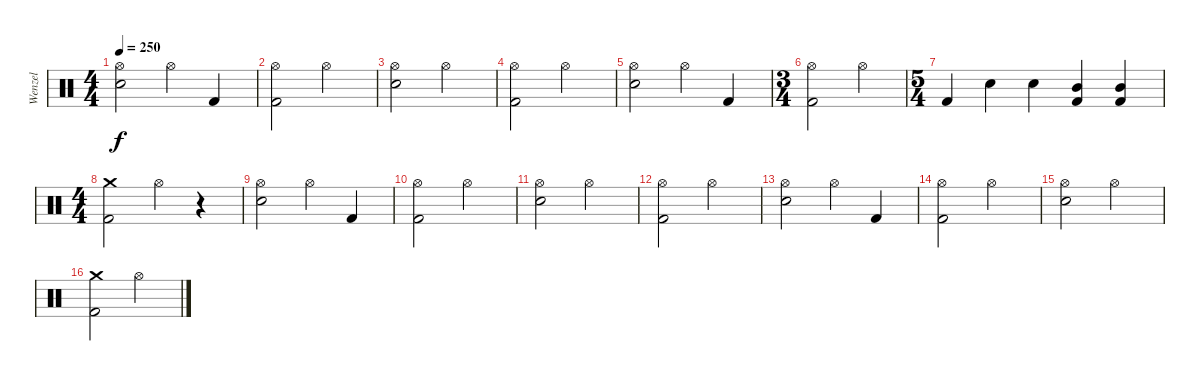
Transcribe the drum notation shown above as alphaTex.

\track ("Wenzel" "Wenzel") {instrument percussion}
\staff {score}
\articulation defaults
\ts (4 4)
\tempo 250
\clef neutral
\ks c
("Hi-Hat (open)" "Snare (hit) 2").2{dy f} "Hi-Hat (open)".4 "Kick (hit) 2".4 |
("Hi-Hat (open)" "Kick (hit) 2").2 "Hi-Hat (open)".2 |
("Hi-Hat (open)" "Snare (hit) 2").2 "Hi-Hat (open)".2 |
("Hi-Hat (open)" "Kick (hit) 2").2 "Hi-Hat (open)".2 |
("Hi-Hat (open)" "Snare (hit) 2").2 "Hi-Hat (open)".4 "Kick (hit) 2".4 |
\ts (3 4)
("Hi-Hat (open)" "Kick (hit) 2").2 "Hi-Hat (open)".4 |
\ts (5 4)
"Kick (hit) 2".4 "Snare (hit) 2".4 "Snare (hit) 2".4 ("Mid Tom (hit)" "Kick (hit) 2").4 ("Mid Tom (hit)" "Kick (hit) 2").4 |
\ts (4 4)
("Crash medium (hit)" "Kick (hit) 2").2 "Hi-Hat (open)".4 r.4 |
("Hi-Hat (open)" "Snare (hit) 2").2 "Hi-Hat (open)".4 "Kick (hit) 2".4 |
("Hi-Hat (open)" "Kick (hit) 2").2 "Hi-Hat (open)".2 |
("Hi-Hat (open)" "Snare (hit) 2").2 "Hi-Hat (open)".2 |
("Hi-Hat (open)" "Kick (hit) 2").2 "Hi-Hat (open)".2 |
("Hi-Hat (open)" "Snare (hit) 2").2 "Hi-Hat (open)".4 "Kick (hit) 2".4 |
("Hi-Hat (open)" "Kick (hit) 2").2 "Hi-Hat (open)".2 |
("Hi-Hat (open)" "Snare (hit) 2").2 "Hi-Hat (open)".2 |
("Crash medium (hit)" "Kick (hit) 2").2 "Hi-Hat (open)".2
